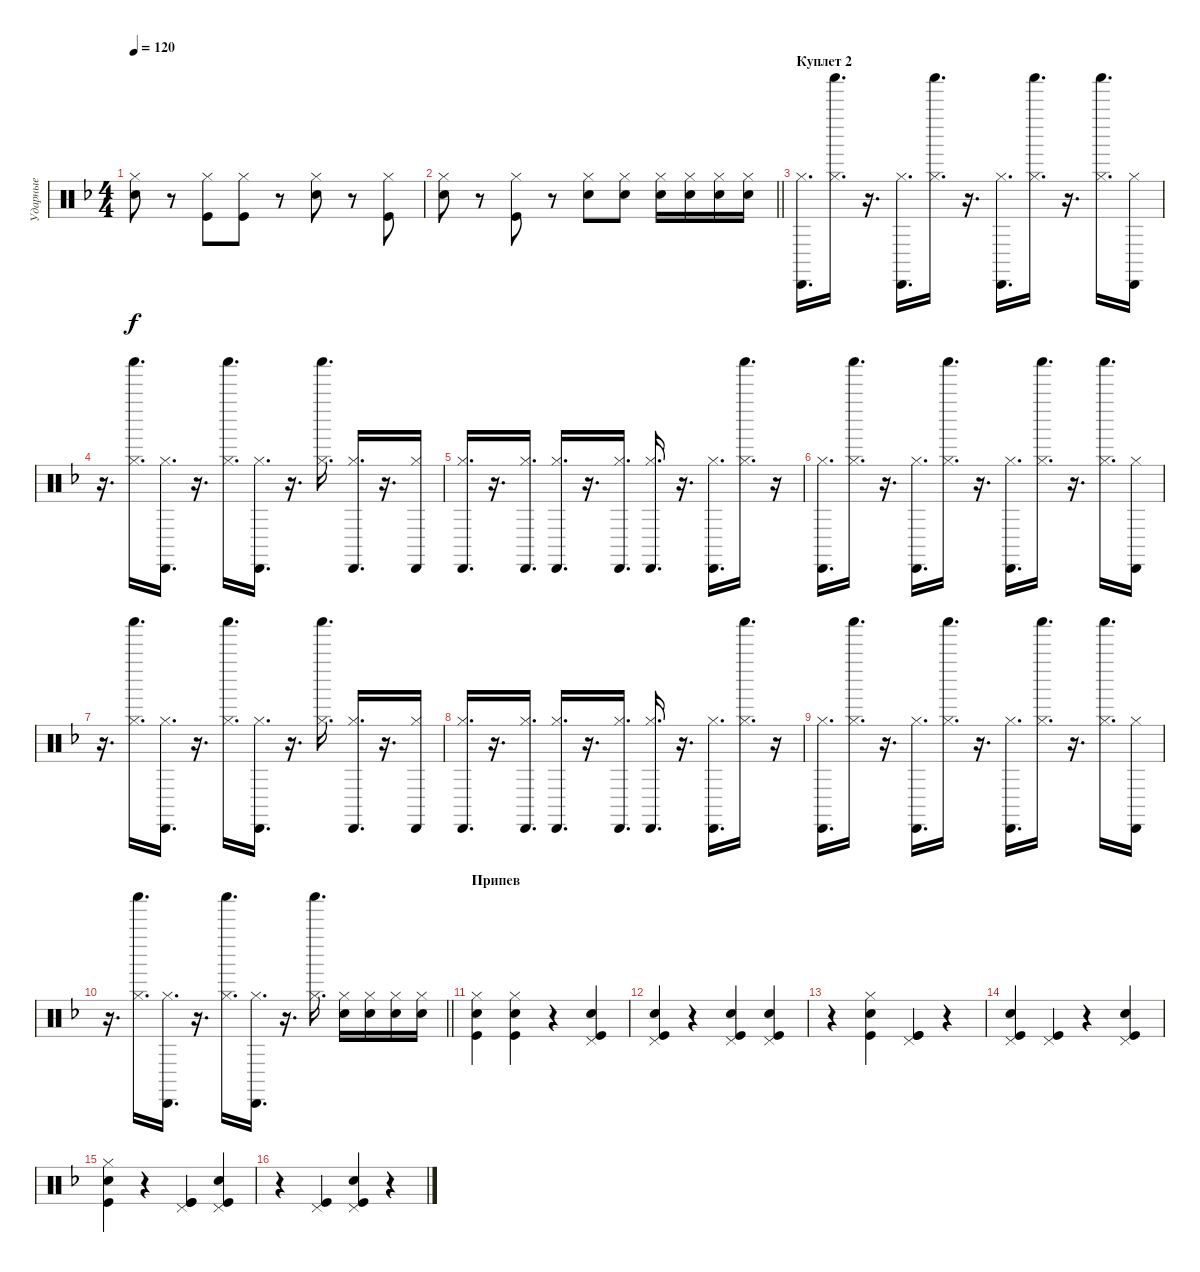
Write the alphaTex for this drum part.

\track ("Ударные" "Ударные") {instrument percussion}
\staff {score}
\articulation defaults
\ts (4 4)
\tempo 120
\clef neutral
\ks f
("Hi-Hat (closed)" "Snare (hit) 2").8{dy f} r.8 ("Hi-Hat (closed)" "Kick (hit)").8 ("Hi-Hat (closed)" "Kick (hit)").8 r.8 ("Hi-Hat (closed)" "Snare (hit) 2").8 r.8 ("Hi-Hat (closed)" "Kick (hit)").8 |
\barLineRight lightlight
("Hi-Hat (closed)" "Snare (hit) 2").8 r.8 ("Hi-Hat (closed)" "Kick (hit)").8 r.8 ("Hi-Hat (closed)" "Snare (hit) 2").8 ("Hi-Hat (closed)" "Snare (hit) 2").8 ("Hi-Hat (closed)" "Snare (hit) 2").16 ("Hi-Hat (closed)" "Snare (hit) 2").16 ("Hi-Hat (closed)" "Snare (hit) 2").16 ("Hi-Hat (closed)" "Snare (hit) 2").16 |
\section ("" "Куплет 2")
("Hi-Hat (closed)" "Cabasa (hit)").16{d volume 6} ("Hi-Hat (closed)" "Shaker (hit)").16{d} r.16{d} ("Hi-Hat (closed)" "Cabasa (hit)").16{d} ("Hi-Hat (closed)" "Shaker (hit)").16{d} r.16{d} ("Hi-Hat (closed)" "Cabasa (hit)").16{d} ("Hi-Hat (closed)" "Shaker (hit)").16{d} r.16{d} ("Hi-Hat (closed)" "Shaker (hit)").16{d} ("Hi-Hat (closed)" "Cabasa (hit)").16 |
r.16{d} ("Hi-Hat (closed)" "Shaker (hit)").16{d} ("Hi-Hat (closed)" "Cabasa (hit)").16{d} r.16{d} ("Hi-Hat (closed)" "Shaker (hit)").16{d} ("Hi-Hat (closed)" "Cabasa (hit)").16{d} r.16{d} ("Hi-Hat (closed)" "Shaker (hit)").16{d} ("Hi-Hat (closed)" "Cabasa (hit)").16{d} r.16{d} ("Hi-Hat (closed)" "Cabasa (hit)").16 |
("Hi-Hat (closed)" "Cabasa (hit)").16{d} r.16{d} ("Hi-Hat (closed)" "Cabasa (hit)").16{d} ("Hi-Hat (closed)" "Cabasa (hit)").16{d} r.16{d} ("Hi-Hat (closed)" "Cabasa (hit)").16{d} ("Hi-Hat (closed)" "Cabasa (hit)").16{d} r.16{d} ("Hi-Hat (closed)" "Cabasa (hit)").16{d} ("Hi-Hat (closed)" "Shaker (hit)").16{d} r.16 |
("Hi-Hat (closed)" "Cabasa (hit)").16{d} ("Hi-Hat (closed)" "Shaker (hit)").16{d} r.16{d} ("Hi-Hat (closed)" "Cabasa (hit)").16{d} ("Hi-Hat (closed)" "Shaker (hit)").16{d} r.16{d} ("Hi-Hat (closed)" "Cabasa (hit)").16{d} ("Hi-Hat (closed)" "Shaker (hit)").16{d} r.16{d} ("Hi-Hat (closed)" "Shaker (hit)").16{d} ("Hi-Hat (closed)" "Cabasa (hit)").16 |
r.16{d} ("Hi-Hat (closed)" "Shaker (hit)").16{d} ("Hi-Hat (closed)" "Cabasa (hit)").16{d} r.16{d} ("Hi-Hat (closed)" "Shaker (hit)").16{d} ("Hi-Hat (closed)" "Cabasa (hit)").16{d} r.16{d} ("Hi-Hat (closed)" "Shaker (hit)").16{d} ("Hi-Hat (closed)" "Cabasa (hit)").16{d} r.16{d} ("Hi-Hat (closed)" "Cabasa (hit)").16 |
("Hi-Hat (closed)" "Cabasa (hit)").16{d} r.16{d} ("Hi-Hat (closed)" "Cabasa (hit)").16{d} ("Hi-Hat (closed)" "Cabasa (hit)").16{d} r.16{d} ("Hi-Hat (closed)" "Cabasa (hit)").16{d} ("Hi-Hat (closed)" "Cabasa (hit)").16{d} r.16{d} ("Hi-Hat (closed)" "Cabasa (hit)").16{d} ("Hi-Hat (closed)" "Shaker (hit)").16{d} r.16 |
("Hi-Hat (closed)" "Cabasa (hit)").16{d} ("Hi-Hat (closed)" "Shaker (hit)").16{d} r.16{d} ("Hi-Hat (closed)" "Cabasa (hit)").16{d} ("Hi-Hat (closed)" "Shaker (hit)").16{d} r.16{d} ("Hi-Hat (closed)" "Cabasa (hit)").16{d} ("Hi-Hat (closed)" "Shaker (hit)").16{d} r.16{d} ("Hi-Hat (closed)" "Shaker (hit)").16{d} ("Hi-Hat (closed)" "Cabasa (hit)").16 |
\barLineRight lightlight
r.16{d} ("Hi-Hat (closed)" "Shaker (hit)").16{d} ("Hi-Hat (closed)" "Cabasa (hit)").16{d} r.16{d} ("Hi-Hat (closed)" "Shaker (hit)").16{d} ("Hi-Hat (closed)" "Cabasa (hit)").16{d} r.16{d} ("Hi-Hat (closed)" "Shaker (hit)").16{d} ("Snare (hit) 2" "Hi-Hat (closed)").16{volume 13} ("Snare (hit) 2" "Hi-Hat (closed)").16 ("Snare (hit) 2" "Hi-Hat (closed)").16 ("Snare (hit) 2" "Hi-Hat (closed)").16 |
\section ("" "Припев")
("Kick (hit)" "Snare (hit) 2" "Hi-Hat (closed)").4 ("Kick (hit)" "Snare (hit) 2" "Hi-Hat (closed)").4 r.4 ("Kick (hit)" "Snare (hit) 2" "Pedal Hi-Hat (hit)").4 |
("Kick (hit)" "Snare (hit) 2" "Pedal Hi-Hat (hit)").4 r.4 ("Kick (hit)" "Snare (hit) 2" "Pedal Hi-Hat (hit)").4 ("Kick (hit)" "Snare (hit) 2" "Pedal Hi-Hat (hit)").4 |
r.4 ("Kick (hit)" "Snare (hit) 2" "Hi-Hat (closed)").4 ("Kick (hit)" "Kick (hit)" "Pedal Hi-Hat (hit)").4 r.4 |
("Kick (hit)" "Snare (hit) 2" "Pedal Hi-Hat (hit)").4 ("Kick (hit)" "Pedal Hi-Hat (hit)").4 r.4 ("Kick (hit)" "Snare (hit) 2" "Pedal Hi-Hat (hit)").4 |
("Kick (hit)" "Snare (hit) 2" "Hi-Hat (closed)").4 r.4 ("Kick (hit)" "Kick (hit)" "Pedal Hi-Hat (hit)").4 ("Kick (hit)" "Snare (hit) 2" "Pedal Hi-Hat (hit)").4 |
r.4 ("Kick (hit)" "Pedal Hi-Hat (hit)").4 ("Kick (hit)" "Snare (hit) 2" "Pedal Hi-Hat (hit)").4 r.4
